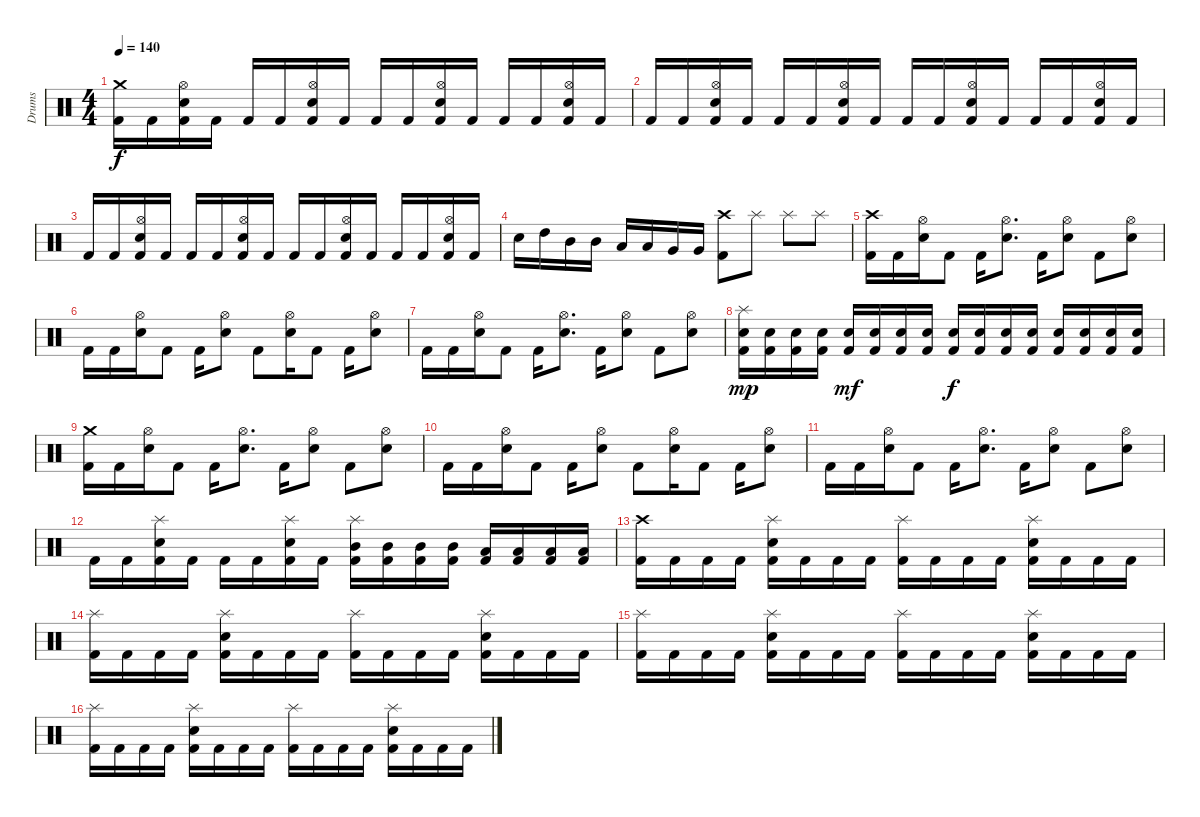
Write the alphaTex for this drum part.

\track ("Drums" "Drums") {instrument percussion}
\staff {score}
\articulation defaults
\ts (4 4)
\tempo 140
\clef neutral
\ks c
("Crash medium (hit)" "Kick (hit) 2").16{dy f} "Kick (hit) 2".16 ("Hi-Hat (open)" "Snare (hit) 2" "Kick (hit) 2").16 "Kick (hit) 2".16 "Kick (hit) 2".16 "Kick (hit) 2".16 ("Hi-Hat (open)" "Snare (hit) 2" "Kick (hit) 2").16 "Kick (hit) 2".16 "Kick (hit) 2".16 "Kick (hit) 2".16 ("Hi-Hat (open)" "Snare (hit) 2" "Kick (hit) 2").16 "Kick (hit) 2".16 "Kick (hit) 2".16 "Kick (hit) 2".16 ("Hi-Hat (open)" "Snare (hit) 2" "Kick (hit) 2").16 "Kick (hit) 2".16 |
"Kick (hit) 2".16 "Kick (hit) 2".16 ("Hi-Hat (open)" "Snare (hit) 2" "Kick (hit) 2").16 "Kick (hit) 2".16 "Kick (hit) 2".16 "Kick (hit) 2".16 ("Hi-Hat (open)" "Snare (hit) 2" "Kick (hit) 2").16 "Kick (hit) 2".16 "Kick (hit) 2".16 "Kick (hit) 2".16 ("Hi-Hat (open)" "Snare (hit) 2" "Kick (hit) 2").16 "Kick (hit) 2".16 "Kick (hit) 2".16 "Kick (hit) 2".16 ("Hi-Hat (open)" "Snare (hit) 2" "Kick (hit) 2").16 "Kick (hit) 2".16 |
"Kick (hit) 2".16 "Kick (hit) 2".16 ("Hi-Hat (open)" "Snare (hit) 2" "Kick (hit) 2").16 "Kick (hit) 2".16 "Kick (hit) 2".16 "Kick (hit) 2".16 ("Hi-Hat (open)" "Snare (hit) 2" "Kick (hit) 2").16 "Kick (hit) 2".16 "Kick (hit) 2".16 "Kick (hit) 2".16 ("Hi-Hat (open)" "Snare (hit) 2" "Kick (hit) 2").16 "Kick (hit) 2".16 "Kick (hit) 2".16 "Kick (hit) 2".16 ("Hi-Hat (open)" "Snare (hit) 2" "Kick (hit) 2").16 "Kick (hit) 2".16 |
"Snare (hit) 2".16 "High Tom (hit)".16 "Mid Tom (hit)".16 "Mid Tom (hit)".16 "Low Tom (hit)".16 "Low Tom (hit)".16 "Very Low Tom (hit)".16 "Very Low Tom (hit)".16 ("Crash high (hit)" "Kick (hit) 2").8 "Splash (hit)".8 "Splash (hit)".8 "Splash (hit)".8 |
("Crash high (hit)" "Kick (hit) 2").16 "Kick (hit) 2".16 ("Hi-Hat (open)" "Snare (hit) 2").16 "Kick (hit) 2".8 "Kick (hit) 2".16 ("Hi-Hat (open)" "Snare (hit) 2").8{d} "Kick (hit) 2".16 ("Hi-Hat (open)" "Snare (hit) 2").8 "Kick (hit) 2".8 ("Hi-Hat (open)" "Snare (hit) 2").8 |
"Kick (hit) 2".16 "Kick (hit) 2".16 ("Hi-Hat (open)" "Snare (hit) 2").16 "Kick (hit) 2".8 "Kick (hit) 2".16 ("Hi-Hat (open)" "Snare (hit) 2").8 "Kick (hit) 2".8 ("Hi-Hat (open)" "Snare (hit) 2").16 "Kick (hit) 2".8 "Kick (hit) 2".16 ("Hi-Hat (open)" "Snare (hit) 2").8 |
"Kick (hit) 2".16 "Kick (hit) 2".16 ("Hi-Hat (open)" "Snare (hit) 2").16 "Kick (hit) 2".8 "Kick (hit) 2".16 ("Hi-Hat (open)" "Snare (hit) 2").8{d} "Kick (hit) 2".16 ("Hi-Hat (open)" "Snare (hit) 2").8 "Kick (hit) 2".8 ("Hi-Hat (open)" "Snare (hit) 2").8 |
("Splash (hit)" "Snare (hit) 2" "Kick (hit) 2").16{dy mp} ("Snare (hit) 2" "Kick (hit) 2").16 ("Snare (hit) 2" "Kick (hit) 2").16 ("Snare (hit) 2" "Kick (hit) 2").16 ("Snare (hit) 2" "Kick (hit) 2").16{dy mf} ("Snare (hit) 2" "Kick (hit) 2").16 ("Snare (hit) 2" "Kick (hit) 2").16 ("Snare (hit) 2" "Kick (hit) 2").16 ("Snare (hit) 2" "Kick (hit) 2").16{dy f} ("Snare (hit) 2" "Kick (hit) 2").16 ("Snare (hit) 2" "Kick (hit) 2").16 ("Snare (hit) 2" "Kick (hit) 2").16 ("Snare (hit) 2" "Kick (hit) 2").16 ("Snare (hit) 2" "Kick (hit) 2").16 ("Snare (hit) 2" "Kick (hit) 2").16 ("Snare (hit) 2" "Kick (hit) 2").16 |
("Crash medium (hit)" "Kick (hit) 2").16 "Kick (hit) 2".16 ("Hi-Hat (open)" "Snare (hit) 2").16 "Kick (hit) 2".8 "Kick (hit) 2".16 ("Hi-Hat (open)" "Snare (hit) 2").8{d} "Kick (hit) 2".16 ("Hi-Hat (open)" "Snare (hit) 2").8 "Kick (hit) 2".8 ("Hi-Hat (open)" "Snare (hit) 2").8 |
"Kick (hit) 2".16 "Kick (hit) 2".16 ("Hi-Hat (open)" "Snare (hit) 2").16 "Kick (hit) 2".8 "Kick (hit) 2".16 ("Hi-Hat (open)" "Snare (hit) 2").8 "Kick (hit) 2".8 ("Hi-Hat (open)" "Snare (hit) 2").16 "Kick (hit) 2".8 "Kick (hit) 2".16 ("Hi-Hat (open)" "Snare (hit) 2").8 |
"Kick (hit) 2".16 "Kick (hit) 2".16 ("Hi-Hat (open)" "Snare (hit) 2").16 "Kick (hit) 2".8 "Kick (hit) 2".16 ("Hi-Hat (open)" "Snare (hit) 2").8{d} "Kick (hit) 2".16 ("Hi-Hat (open)" "Snare (hit) 2").8 "Kick (hit) 2".8 ("Hi-Hat (open)" "Snare (hit) 2").8 |
"Kick (hit) 2".16 "Kick (hit) 2".16 ("Splash (hit)" "Snare (hit) 2" "Kick (hit) 2").16 "Kick (hit) 2".16 "Kick (hit) 2".16 "Kick (hit) 2".16 ("Splash (hit)" "Snare (hit) 2" "Kick (hit) 2").16 "Kick (hit) 2".16 ("Splash (hit)" "Mid Tom (hit)" "Kick (hit) 2").16 ("Mid Tom (hit)" "Kick (hit) 2").16 ("Mid Tom (hit)" "Kick (hit) 2").16 ("Mid Tom (hit)" "Kick (hit) 2").16 ("Low Tom (hit)" "Kick (hit) 2").16 ("Low Tom (hit)" "Kick (hit) 2").16 ("Low Tom (hit)" "Kick (hit) 2").16 ("Low Tom (hit)" "Kick (hit) 2").16 |
("Crash high (hit)" "Kick (hit) 2").16 "Kick (hit) 2".16 "Kick (hit) 2".16 "Kick (hit) 2".16 ("Splash (hit)" "Snare (hit) 2" "Kick (hit) 2").16 "Kick (hit) 2".16 "Kick (hit) 2".16 "Kick (hit) 2".16 ("Splash (hit)" "Kick (hit) 2").16 "Kick (hit) 2".16 "Kick (hit) 2".16 "Kick (hit) 2".16 ("Splash (hit)" "Snare (hit) 2" "Kick (hit) 2").16 "Kick (hit) 2".16 "Kick (hit) 2".16 "Kick (hit) 2".16 |
("Splash (hit)" "Kick (hit) 2").16 "Kick (hit) 2".16 "Kick (hit) 2".16 "Kick (hit) 2".16 ("Splash (hit)" "Snare (hit) 2" "Kick (hit) 2").16 "Kick (hit) 2".16 "Kick (hit) 2".16 "Kick (hit) 2".16 ("Splash (hit)" "Kick (hit) 2").16 "Kick (hit) 2".16 "Kick (hit) 2".16 "Kick (hit) 2".16 ("Splash (hit)" "Snare (hit) 2" "Kick (hit) 2").16 "Kick (hit) 2".16 "Kick (hit) 2".16 "Kick (hit) 2".16 |
("Splash (hit)" "Kick (hit) 2").16 "Kick (hit) 2".16 "Kick (hit) 2".16 "Kick (hit) 2".16 ("Splash (hit)" "Snare (hit) 2" "Kick (hit) 2").16 "Kick (hit) 2".16 "Kick (hit) 2".16 "Kick (hit) 2".16 ("Splash (hit)" "Kick (hit) 2").16 "Kick (hit) 2".16 "Kick (hit) 2".16 "Kick (hit) 2".16 ("Splash (hit)" "Snare (hit) 2" "Kick (hit) 2").16 "Kick (hit) 2".16 "Kick (hit) 2".16 "Kick (hit) 2".16 |
("Splash (hit)" "Kick (hit) 2").16 "Kick (hit) 2".16 "Kick (hit) 2".16 "Kick (hit) 2".16 ("Splash (hit)" "Snare (hit) 2" "Kick (hit) 2").16 "Kick (hit) 2".16 "Kick (hit) 2".16 "Kick (hit) 2".16 ("Splash (hit)" "Kick (hit) 2").16 "Kick (hit) 2".16 "Kick (hit) 2".16 "Kick (hit) 2".16 ("Splash (hit)" "Snare (hit) 2" "Kick (hit) 2").16 "Kick (hit) 2".16 "Kick (hit) 2".16 "Kick (hit) 2".16
